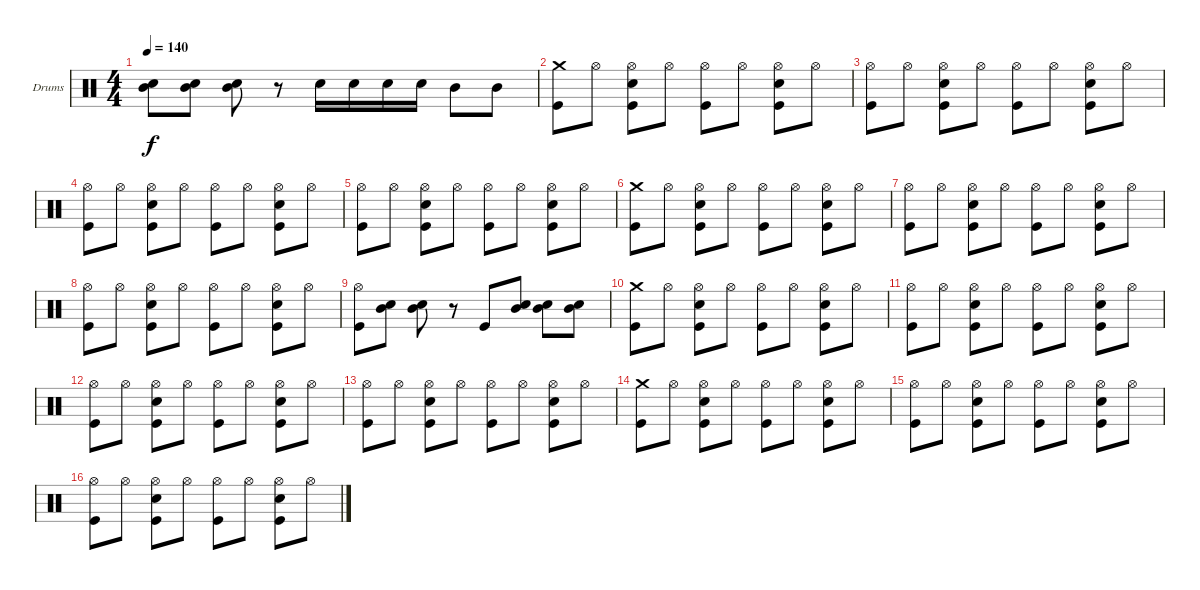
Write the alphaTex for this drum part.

\bracketExtendMode groupsimilarinstruments
\firstSystemTrackNameOrientation horizontal
\otherSystemsTrackNameOrientation horizontal
\track ("Drumkit" "Drums") {instrument percussion}
\staff {score}
\articulation defaults
\ts (4 4)
\tempo 140
\clef neutral
\ks c
("Mid Tom (hit)" "Snare (hit) 2").8{dy f} ("Mid Tom (hit)" "Snare (hit) 2").8 ("Mid Tom (hit)" "Snare (hit) 2").8 r.8 "Snare (hit) 2".16 "Snare (hit) 2".16 "Snare (hit) 2".16 "Snare (hit) 2".16 "Mid Tom (hit)".8 "Mid Tom (hit)".8 |
("Crash medium (hit)" "Kick (hit)").8 "Hi-Hat (open)".8 ("Hi-Hat (open)" "Snare (hit) 2" "Kick (hit)").8 "Hi-Hat (open)".8 ("Hi-Hat (open)" "Kick (hit)").8 "Hi-Hat (open)".8 ("Hi-Hat (open)" "Snare (hit) 2" "Kick (hit)").8 "Hi-Hat (open)".8 |
("Hi-Hat (open)" "Kick (hit)").8 "Hi-Hat (open)".8 ("Hi-Hat (open)" "Snare (hit) 2" "Kick (hit)").8 "Hi-Hat (open)".8 ("Hi-Hat (open)" "Kick (hit)").8 "Hi-Hat (open)".8 ("Hi-Hat (open)" "Snare (hit) 2" "Kick (hit)").8 "Hi-Hat (open)".8 |
("Hi-Hat (open)" "Kick (hit)").8 "Hi-Hat (open)".8 ("Hi-Hat (open)" "Snare (hit) 2" "Kick (hit)").8 "Hi-Hat (open)".8 ("Hi-Hat (open)" "Kick (hit)").8 "Hi-Hat (open)".8 ("Hi-Hat (open)" "Snare (hit) 2" "Kick (hit)").8 "Hi-Hat (open)".8 |
("Hi-Hat (open)" "Kick (hit)").8 "Hi-Hat (open)".8 ("Hi-Hat (open)" "Snare (hit) 2" "Kick (hit)").8 "Hi-Hat (open)".8 ("Hi-Hat (open)" "Kick (hit)").8 "Hi-Hat (open)".8 ("Hi-Hat (open)" "Snare (hit) 2" "Kick (hit)").8 "Hi-Hat (open)".8 |
("Crash medium (hit)" "Kick (hit)").8 "Hi-Hat (open)".8 ("Hi-Hat (open)" "Snare (hit) 2" "Kick (hit)").8 "Hi-Hat (open)".8 ("Hi-Hat (open)" "Kick (hit)").8 "Hi-Hat (open)".8 ("Hi-Hat (open)" "Snare (hit) 2" "Kick (hit)").8 "Hi-Hat (open)".8 |
("Hi-Hat (open)" "Kick (hit)").8 "Hi-Hat (open)".8 ("Hi-Hat (open)" "Snare (hit) 2" "Kick (hit)").8 "Hi-Hat (open)".8 ("Hi-Hat (open)" "Kick (hit)").8 "Hi-Hat (open)".8 ("Hi-Hat (open)" "Snare (hit) 2" "Kick (hit)").8 "Hi-Hat (open)".8 |
("Hi-Hat (open)" "Kick (hit)").8 "Hi-Hat (open)".8 ("Hi-Hat (open)" "Snare (hit) 2" "Kick (hit)").8 "Hi-Hat (open)".8 ("Hi-Hat (open)" "Kick (hit)").8 "Hi-Hat (open)".8 ("Hi-Hat (open)" "Snare (hit) 2" "Kick (hit)").8 "Hi-Hat (open)".8 |
("Hi-Hat (open)" "Kick (hit)").8 ("Mid Tom (hit)" "Snare (hit) 2").8 ("Mid Tom (hit)" "Snare (hit) 2").8 r.8 "Kick (hit)".8 ("Mid Tom (hit)" "Snare (hit) 2").8 ("Mid Tom (hit)" "Snare (hit) 2").8 ("Mid Tom (hit)" "Snare (hit) 2").8 |
("Crash medium (hit)" "Kick (hit)").8 "Hi-Hat (open)".8 ("Hi-Hat (open)" "Snare (hit) 2" "Kick (hit)").8 "Hi-Hat (open)".8 ("Hi-Hat (open)" "Kick (hit)").8 "Hi-Hat (open)".8 ("Hi-Hat (open)" "Snare (hit) 2" "Kick (hit)").8 "Hi-Hat (open)".8 |
("Hi-Hat (open)" "Kick (hit)").8 "Hi-Hat (open)".8 ("Hi-Hat (open)" "Snare (hit) 2" "Kick (hit)").8 "Hi-Hat (open)".8 ("Hi-Hat (open)" "Kick (hit)").8 "Hi-Hat (open)".8 ("Hi-Hat (open)" "Snare (hit) 2" "Kick (hit)").8 "Hi-Hat (open)".8 |
("Hi-Hat (open)" "Kick (hit)").8 "Hi-Hat (open)".8 ("Hi-Hat (open)" "Snare (hit) 2" "Kick (hit)").8 "Hi-Hat (open)".8 ("Hi-Hat (open)" "Kick (hit)").8 "Hi-Hat (open)".8 ("Hi-Hat (open)" "Snare (hit) 2" "Kick (hit)").8 "Hi-Hat (open)".8 |
("Hi-Hat (open)" "Kick (hit)").8 "Hi-Hat (open)".8 ("Hi-Hat (open)" "Snare (hit) 2" "Kick (hit)").8 "Hi-Hat (open)".8 ("Hi-Hat (open)" "Kick (hit)").8 "Hi-Hat (open)".8 ("Hi-Hat (open)" "Snare (hit) 2" "Kick (hit)").8 "Hi-Hat (open)".8 |
("Crash medium (hit)" "Kick (hit)").8 "Hi-Hat (open)".8 ("Hi-Hat (open)" "Snare (hit) 2" "Kick (hit)").8 "Hi-Hat (open)".8 ("Hi-Hat (open)" "Kick (hit)").8 "Hi-Hat (open)".8 ("Hi-Hat (open)" "Snare (hit) 2" "Kick (hit)").8 "Hi-Hat (open)".8 |
("Hi-Hat (open)" "Kick (hit)").8 "Hi-Hat (open)".8 ("Hi-Hat (open)" "Snare (hit) 2" "Kick (hit)").8 "Hi-Hat (open)".8 ("Hi-Hat (open)" "Kick (hit)").8 "Hi-Hat (open)".8 ("Hi-Hat (open)" "Snare (hit) 2" "Kick (hit)").8 "Hi-Hat (open)".8 |
("Hi-Hat (open)" "Kick (hit)").8 "Hi-Hat (open)".8 ("Hi-Hat (open)" "Snare (hit) 2" "Kick (hit)").8 "Hi-Hat (open)".8 ("Hi-Hat (open)" "Kick (hit)").8 "Hi-Hat (open)".8 ("Hi-Hat (open)" "Snare (hit) 2" "Kick (hit)").8 "Hi-Hat (open)".8
